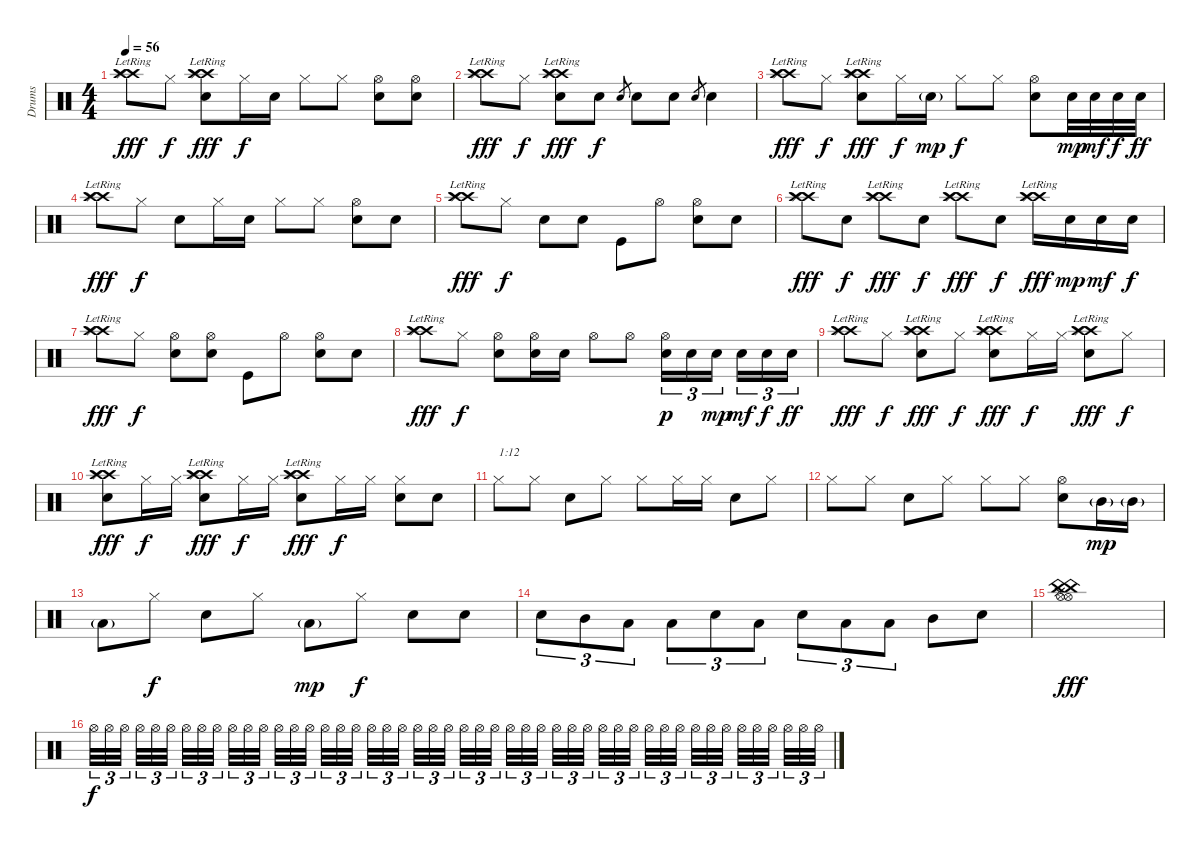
\track ("Drums" "Drums") {instrument percussion}
\staff {score}
\articulation defaults
\ts (4 4)
\tempo 56
\clef neutral
\ks c
("Crash high (hit)"{lr} "Crash high (hit)"{lr} "Splash (hit)"{lr}).8{dy fff} "Hi-Hat (closed)".8{dy f} ("Crash high (hit)"{lr} "Crash high (hit)"{lr} "Splash (hit)"{lr} "Electric Snare (hit)").8{dy fff} "Hi-Hat (closed)".16{dy f} "Electric Snare (hit)".16 "Hi-Hat (closed)".8 "Hi-Hat (closed)".8 ("Hi-Hat (open)" "Electric Snare (hit)").8 ("Hi-Hat (open)" "Electric Snare (hit)").8 |
("Crash high (hit)"{lr} "Crash high (hit)"{lr} "Splash (hit)"{lr}).8{dy fff} "Hi-Hat (closed)".8{dy f} ("Crash high (hit)"{lr} "Crash high (hit)"{lr} "Splash (hit)"{lr} "Electric Snare (hit)").8{dy fff} "Electric Snare (hit)".8{dy f} "Electric Snare (hit)".8{gr} "Electric Snare (hit)".8 "Electric Snare (hit)".8 "Electric Snare (hit)".8{gr} "Electric Snare (hit)".4 |
("Crash high (hit)"{lr} "Crash high (hit)"{lr} "Splash (hit)"{lr}).8{dy fff} "Hi-Hat (closed)".8{dy f} ("Crash high (hit)"{lr} "Crash high (hit)"{lr} "Splash (hit)"{lr} "Electric Snare (hit)").8{dy fff} "Hi-Hat (closed)".16{dy f} "Electric Snare (hit)"{g}.16{dy mp} "Hi-Hat (closed)".8{dy f} "Hi-Hat (closed)".8 ("Hi-Hat (open)" "Electric Snare (hit)").8 "Electric Snare (hit)".32{dy mp} "Electric Snare (hit)".32{dy mf} "Electric Snare (hit)".32{dy f} "Electric Snare (hit)".32{dy ff} |
("Crash high (hit)"{lr} "Crash high (hit)"{lr} "Splash (hit)"{lr}).8{dy fff} "Hi-Hat (closed)".8{dy f} "Electric Snare (hit)".8 "Hi-Hat (closed)".16 "Electric Snare (hit)".16 "Hi-Hat (closed)".8 "Hi-Hat (closed)".8 ("Hi-Hat (open)" "Electric Snare (hit)").8 "Electric Snare (hit)".8 |
("Crash high (hit)"{lr} "Crash high (hit)"{lr} "Splash (hit)"{lr}).8{dy fff} "Hi-Hat (closed)".8{dy f} "Electric Snare (hit)".8 "Electric Snare (hit)".8 "Kick (hit)".8 "Hi-Hat (open)".8 ("Hi-Hat (open)" "Electric Snare (hit)").8 "Electric Snare (hit)".8 |
("Crash high (hit)"{lr} "Crash high (hit)"{lr} "Splash (hit)"{lr}).8{dy fff} "Electric Snare (hit)".8{dy f} ("Crash high (hit)"{lr} "Crash high (hit)"{lr} "Splash (hit)"{lr}).8{dy fff} "Electric Snare (hit)".8{dy f} ("Crash high (hit)"{lr} "Crash high (hit)"{lr} "Splash (hit)"{lr}).8{dy fff} "Electric Snare (hit)".8{dy f} ("Crash high (hit)"{lr} "Crash high (hit)"{lr} "Splash (hit)"{lr}).16{dy fff} "Electric Snare (hit)".16{dy mp} "Electric Snare (hit)".16{dy mf} "Electric Snare (hit)".16{dy f} |
("Crash high (hit)"{lr} "Crash high (hit)"{lr} "Splash (hit)"{lr}).8{dy fff} "Hi-Hat (closed)".8{dy f} ("Hi-Hat (open)" "Electric Snare (hit)").8 ("Hi-Hat (open)" "Electric Snare (hit)").8 "Kick (hit)".8 "Hi-Hat (open)".8 ("Hi-Hat (open)" "Electric Snare (hit)").8 "Electric Snare (hit)".8 |
("Crash high (hit)"{lr} "Crash high (hit)"{lr} "Splash (hit)"{lr}).8{dy fff} "Hi-Hat (closed)".8{dy f} ("Hi-Hat (open)" "Electric Snare (hit)").8 ("Hi-Hat (open)" "Electric Snare (hit)").16 "Electric Snare (hit)".16 "Hi-Hat (open)".8 "Hi-Hat (open)".8 ("Hi-Hat (open)" "Electric Snare (hit)").16{tu (3 2) dy p} "Electric Snare (hit)".16{tu (3 2)} "Electric Snare (hit)".16{tu (3 2) dy mp} "Electric Snare (hit)".16{tu (3 2) dy mf} "Electric Snare (hit)".16{tu (3 2) dy f} "Electric Snare (hit)".16{tu (3 2) dy ff} |
("Crash high (hit)"{lr} "Crash high (hit)"{lr} "Splash (hit)"{lr}).8{dy fff} "Hi-Hat (closed)".8{dy f} ("Crash high (hit)"{lr} "Crash high (hit)"{lr} "Splash (hit)"{lr} "Electric Snare (hit)").8{dy fff} "Hi-Hat (closed)".8{dy f} ("Crash high (hit)"{lr} "Crash high (hit)"{lr} "Splash (hit)"{lr} "Electric Snare (hit)").8{dy fff} "Hi-Hat (closed)".16{dy f} "Hi-Hat (closed)".16 ("Crash high (hit)"{lr} "Crash high (hit)"{lr} "Splash (hit)"{lr} "Electric Snare (hit)").8{dy fff} "Hi-Hat (closed)".8{dy f} |
("Crash high (hit)"{lr} "Crash high (hit)"{lr} "Splash (hit)"{lr} "Electric Snare (hit)").8{dy fff} "Hi-Hat (closed)".16{dy f} "Hi-Hat (closed)".16 ("Crash high (hit)"{lr} "Crash high (hit)"{lr} "Splash (hit)"{lr} "Electric Snare (hit)").8{dy fff} "Hi-Hat (closed)".16{dy f} "Hi-Hat (closed)".16 ("Crash high (hit)"{lr} "Crash high (hit)"{lr} "Splash (hit)"{lr} "Electric Snare (hit)").8{dy fff} "Hi-Hat (closed)".16{dy f} "Hi-Hat (closed)".16 ("Hi-Hat (closed)" "Electric Snare (hit)").8 "Electric Snare (hit)".8 |
"Hi-Hat (closed)".8{txt "1:12"} "Hi-Hat (closed)".8 "Electric Snare (hit)".8 "Hi-Hat (closed)".8 "Hi-Hat (closed)".8 "Hi-Hat (closed)".16 "Hi-Hat (closed)".16 "Electric Snare (hit)".8 "Hi-Hat (closed)".8 |
"Hi-Hat (closed)".8 "Hi-Hat (closed)".8 "Electric Snare (hit)".8 "Hi-Hat (closed)".8 "Hi-Hat (closed)".8 "Hi-Hat (closed)".8 ("Hi-Hat (open)" "Electric Snare (hit)").8 "Mid Tom (hit)"{g}.16{dy mp} "Mid Tom (hit)"{g}.16 |
"Low Tom (hit)"{g}.8 "Hi-Hat (closed)".8{dy f} "Electric Snare (hit)".8 "Hi-Hat (closed)".8 "Low Tom (hit)"{g}.8{dy mp} "Hi-Hat (closed)".8{dy f} "Electric Snare (hit)".8 "Electric Snare (hit)".8 |
"Electric Snare (hit)".8{tu (3 2)} "Mid Tom (hit)".8{tu (3 2)} "Low Tom (hit)".8{tu (3 2)} "Low Tom (hit)".8{tu (3 2)} "Electric Snare (hit)".8{tu (3 2)} "Low Tom (hit)".8{tu (3 2)} "Electric Snare (hit)".8{tu (3 2)} "Low Tom (hit)".8{tu (3 2)} "Low Tom (hit)".8{tu (3 2)} "Mid Tom (hit)".8 "Electric Snare (hit)".8 |
("Splash (hit)" "Hi-Hat (open)" "China (hit)" "China (hit)" "Splash (hit)" "Hi-Hat (open)").1{dy fff} |
"Hi-Hat (open)".32{tu (3 2) dy f volume 0} "Hi-Hat (open)".32{tu (3 2)} "Hi-Hat (open)".32{tu (3 2)} "Hi-Hat (open)".32{tu (3 2) volume 13} "Hi-Hat (open)".32{tu (3 2)} "Hi-Hat (open)".32{tu (3 2)} "Hi-Hat (open)".32{tu (3 2)} "Hi-Hat (open)".32{tu (3 2)} "Hi-Hat (open)".32{tu (3 2)} "Hi-Hat (open)".32{tu (3 2)} "Hi-Hat (open)".32{tu (3 2)} "Hi-Hat (open)".32{tu (3 2)} "Hi-Hat (open)".32{tu (3 2)} "Hi-Hat (open)".32{tu (3 2)} "Hi-Hat (open)".32{tu (3 2)} "Hi-Hat (open)".32{tu (3 2)} "Hi-Hat (open)".32{tu (3 2)} "Hi-Hat (open)".32{tu (3 2)} "Hi-Hat (open)".32{tu (3 2)} "Hi-Hat (open)".32{tu (3 2)} "Hi-Hat (open)".32{tu (3 2)} "Hi-Hat (open)".32{tu (3 2)} "Hi-Hat (open)".32{tu (3 2)} "Hi-Hat (open)".32{tu (3 2)} "Hi-Hat (open)".32{tu (3 2)} "Hi-Hat (open)".32{tu (3 2)} "Hi-Hat (open)".32{tu (3 2)} "Hi-Hat (open)".32{tu (3 2)} "Hi-Hat (open)".32{tu (3 2)} "Hi-Hat (open)".32{tu (3 2)} "Hi-Hat (open)".32{tu (3 2)} "Hi-Hat (open)".32{tu (3 2)} "Hi-Hat (open)".32{tu (3 2)} "Hi-Hat (open)".32{tu (3 2)} "Hi-Hat (open)".32{tu (3 2)} "Hi-Hat (open)".32{tu (3 2)} "Hi-Hat (open)".32{tu (3 2)} "Hi-Hat (open)".32{tu (3 2)} "Hi-Hat (open)".32{tu (3 2)} "Hi-Hat (open)".32{tu (3 2)} "Hi-Hat (open)".32{tu (3 2)} "Hi-Hat (open)".32{tu (3 2)} "Hi-Hat (open)".32{tu (3 2)} "Hi-Hat (open)".32{tu (3 2)} "Hi-Hat (open)".32{tu (3 2)} "Hi-Hat (open)".32{tu (3 2)} "Hi-Hat (open)".32{tu (3 2)} "Hi-Hat (open)".32{tu (3 2)}
